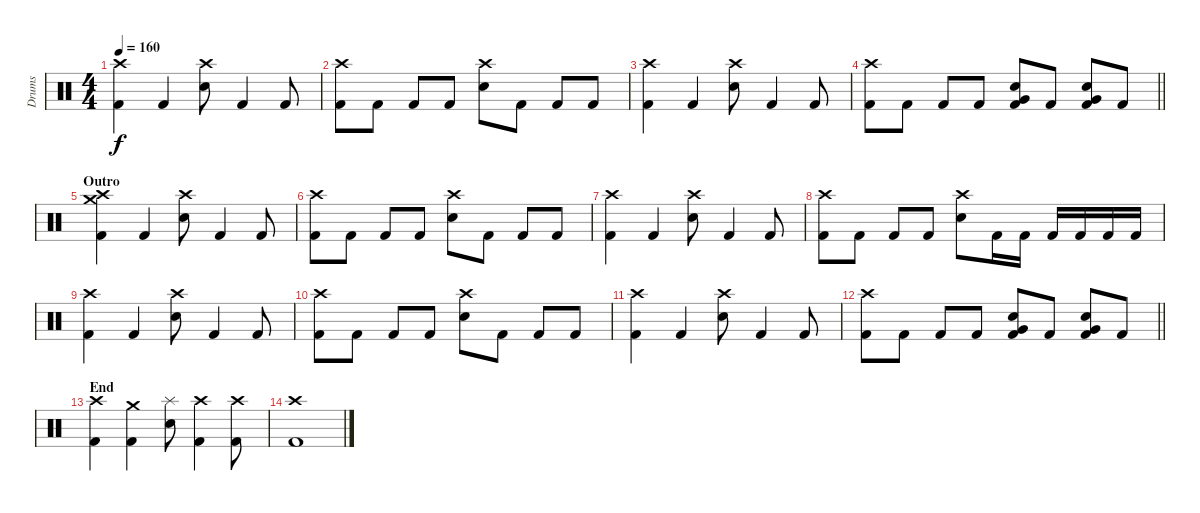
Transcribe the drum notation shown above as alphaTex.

\track ("Drums" "Drums") {instrument percussion}
\staff {score}
\articulation defaults
\ts (4 4)
\tempo 160
\clef neutral
\ks c
("Crash high (hit)" "Kick (hit) 2").4{dy f} "Kick (hit) 2".4 ("Crash high (hit)" "Electric Snare (hit)").8 "Kick (hit) 2".4 "Kick (hit) 2".8 |
("Crash high (hit)" "Kick (hit) 2").8 "Kick (hit) 2".8 "Kick (hit) 2".8 "Kick (hit) 2".8 ("Crash high (hit)" "Electric Snare (hit)").8 "Kick (hit) 2".8 "Kick (hit) 2".8 "Kick (hit) 2".8 |
("Crash high (hit)" "Kick (hit) 2").4 "Kick (hit) 2".4 ("Crash high (hit)" "Electric Snare (hit)").8 "Kick (hit) 2".4 "Kick (hit) 2".8 |
\barLineRight lightlight
("Crash high (hit)" "Kick (hit) 2").8 "Kick (hit) 2".8 "Kick (hit) 2".8 "Kick (hit) 2".8 ("Electric Snare (hit)" "Very Low Tom (hit)" "Kick (hit) 2").8 "Kick (hit) 2".8 ("Electric Snare (hit)" "Very Low Tom (hit)" "Kick (hit) 2").8 "Kick (hit) 2".8 |
\section ("" "Outro")
("Crash high (hit)" "Crash medium (hit)" "Kick (hit) 2").4 "Kick (hit) 2".4 ("Crash high (hit)" "Electric Snare (hit)").8 "Kick (hit) 2".4 "Kick (hit) 2".8 |
("Crash high (hit)" "Kick (hit) 2").8 "Kick (hit) 2".8 "Kick (hit) 2".8 "Kick (hit) 2".8 ("Crash high (hit)" "Electric Snare (hit)").8 "Kick (hit) 2".8 "Kick (hit) 2".8 "Kick (hit) 2".8 |
("Crash high (hit)" "Kick (hit) 2").4 "Kick (hit) 2".4 ("Crash high (hit)" "Electric Snare (hit)").8 "Kick (hit) 2".4 "Kick (hit) 2".8 |
("Crash high (hit)" "Kick (hit) 2").8 "Kick (hit) 2".8 "Kick (hit) 2".8 "Kick (hit) 2".8 ("Crash high (hit)" "Electric Snare (hit)").8 "Kick (hit) 2".16 "Kick (hit) 2".16 "Kick (hit) 2".16 "Kick (hit) 2".16 "Kick (hit) 2".16 "Kick (hit) 2".16 |
("Crash high (hit)" "Kick (hit) 2").4 "Kick (hit) 2".4 ("Crash high (hit)" "Electric Snare (hit)").8 "Kick (hit) 2".4 "Kick (hit) 2".8 |
("Crash high (hit)" "Kick (hit) 2").8 "Kick (hit) 2".8 "Kick (hit) 2".8 "Kick (hit) 2".8 ("Crash high (hit)" "Electric Snare (hit)").8 "Kick (hit) 2".8 "Kick (hit) 2".8 "Kick (hit) 2".8 |
("Crash high (hit)" "Kick (hit) 2").4 "Kick (hit) 2".4 ("Crash high (hit)" "Electric Snare (hit)").8 "Kick (hit) 2".4 "Kick (hit) 2".8 |
\barLineRight lightlight
("Crash high (hit)" "Kick (hit) 2").8 "Kick (hit) 2".8 "Kick (hit) 2".8 "Kick (hit) 2".8 ("Electric Snare (hit)" "Very Low Tom (hit)" "Kick (hit) 2").8 "Kick (hit) 2".8 ("Electric Snare (hit)" "Very Low Tom (hit)" "Kick (hit) 2").8 "Kick (hit) 2".8 |
\section ("" "End")
("Crash high (hit)" "Kick (hit) 2").4 ("Crash medium (hit)" "Kick (hit) 2").4 ("Splash (hit)" "Electric Snare (hit)").8 ("Crash high (hit)" "Kick (hit) 2").4 ("Crash high (hit)" "Kick (hit) 2").8 |
("Crash high (hit)" "Kick (hit) 2").1
